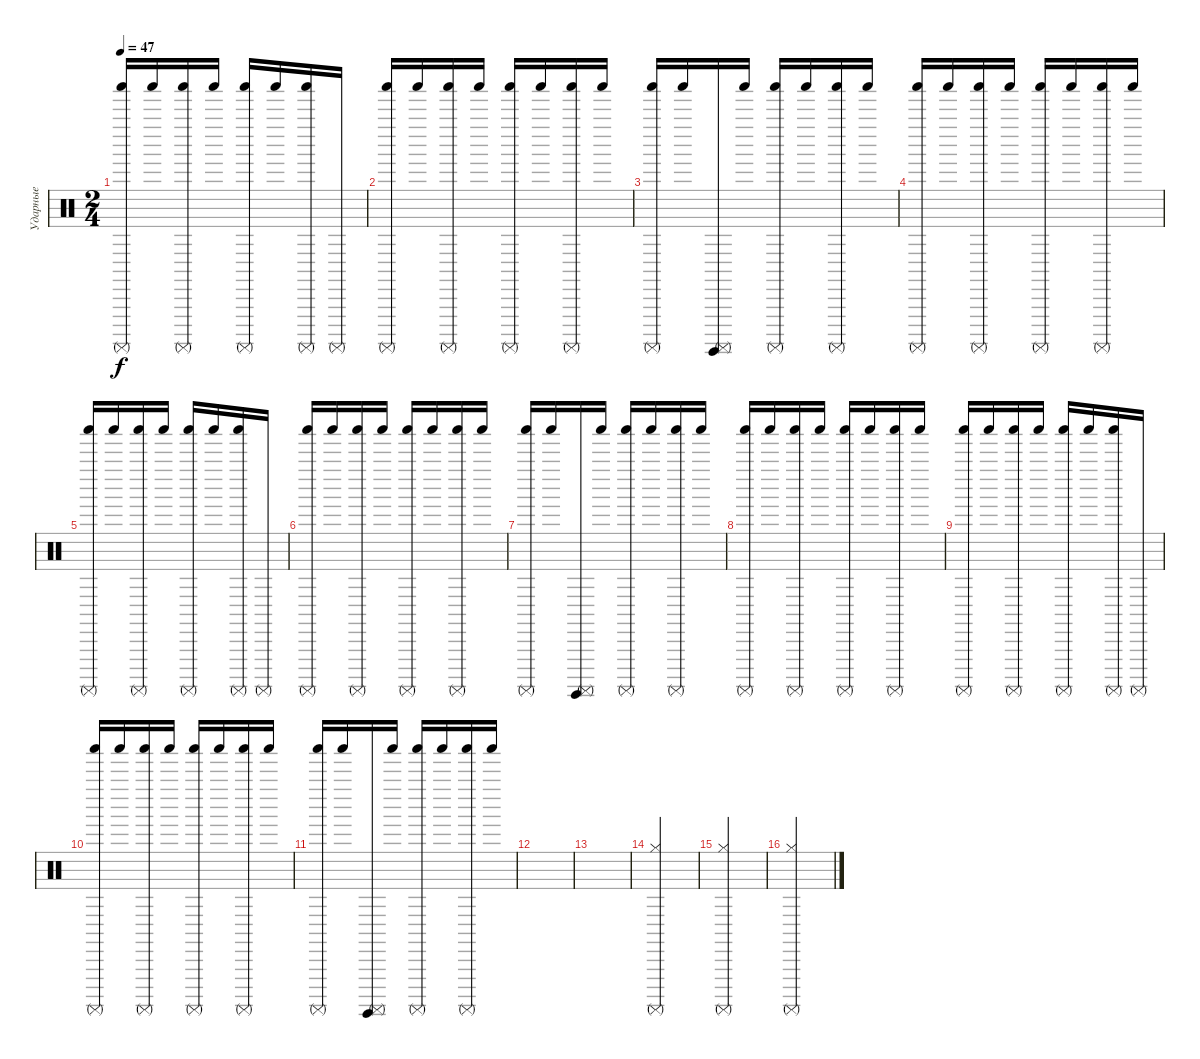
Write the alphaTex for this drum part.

\track ("Ударные" "Ударные") {instrument percussion}
\staff {score}
\articulation defaults
\ts (2 4)
\tempo 47
\clef neutral
\ks c
("Shaker (hit)" "Surdo (mute)").16{dy f} "Shaker (hit)".16 ("Shaker (hit)" "Surdo (mute)").16 "Shaker (hit)".16 ("Shaker (hit)" "Surdo (mute)").16 "Shaker (hit)".16 ("Shaker (hit)" "Surdo (mute)").16 "Surdo (mute)".16 |
("Shaker (hit)" "Surdo (mute)").16 "Shaker (hit)".16 ("Shaker (hit)" "Surdo (mute)").16 "Shaker (hit)".16 ("Shaker (hit)" "Surdo (mute)").16 "Shaker (hit)".16 ("Shaker (hit)" "Surdo (mute)").16 "Shaker (hit)".16 |
("Shaker (hit)" "Surdo (mute)").16 "Shaker (hit)".16 ("Surdo (mute)" "Surdo (hit)").16 "Shaker (hit)".16 ("Shaker (hit)" "Surdo (mute)").16 "Shaker (hit)".16 ("Shaker (hit)" "Surdo (mute)").16 "Shaker (hit)".16 |
("Shaker (hit)" "Surdo (mute)").16 "Shaker (hit)".16 ("Shaker (hit)" "Surdo (mute)").16 "Shaker (hit)".16 ("Shaker (hit)" "Surdo (mute)").16 "Shaker (hit)".16 ("Shaker (hit)" "Surdo (mute)").16 "Shaker (hit)".16 |
("Shaker (hit)" "Surdo (mute)").16 "Shaker (hit)".16 ("Shaker (hit)" "Surdo (mute)").16 "Shaker (hit)".16 ("Shaker (hit)" "Surdo (mute)").16 "Shaker (hit)".16 ("Shaker (hit)" "Surdo (mute)").16 "Surdo (mute)".16 |
("Shaker (hit)" "Surdo (mute)").16 "Shaker (hit)".16 ("Shaker (hit)" "Surdo (mute)").16 "Shaker (hit)".16 ("Shaker (hit)" "Surdo (mute)").16 "Shaker (hit)".16 ("Shaker (hit)" "Surdo (mute)").16 "Shaker (hit)".16 |
("Shaker (hit)" "Surdo (mute)").16 "Shaker (hit)".16 ("Surdo (mute)" "Surdo (hit)").16 "Shaker (hit)".16 ("Shaker (hit)" "Surdo (mute)").16 "Shaker (hit)".16 ("Shaker (hit)" "Surdo (mute)").16 "Shaker (hit)".16 |
("Shaker (hit)" "Surdo (mute)").16 "Shaker (hit)".16 ("Shaker (hit)" "Surdo (mute)").16 "Shaker (hit)".16 ("Shaker (hit)" "Surdo (mute)").16 "Shaker (hit)".16 ("Shaker (hit)" "Surdo (mute)").16 "Shaker (hit)".16 |
("Shaker (hit)" "Surdo (mute)").16 "Shaker (hit)".16 ("Shaker (hit)" "Surdo (mute)").16 "Shaker (hit)".16 ("Shaker (hit)" "Surdo (mute)").16 "Shaker (hit)".16 ("Shaker (hit)" "Surdo (mute)").16 "Surdo (mute)".16 |
("Shaker (hit)" "Surdo (mute)").16 "Shaker (hit)".16 ("Shaker (hit)" "Surdo (mute)").16 "Shaker (hit)".16 ("Shaker (hit)" "Surdo (mute)").16 "Shaker (hit)".16 ("Shaker (hit)" "Surdo (mute)").16 "Shaker (hit)".16 |
("Shaker (hit)" "Surdo (mute)").16 "Shaker (hit)".16 ("Surdo (mute)" "Surdo (hit)").16 "Shaker (hit)".16 ("Shaker (hit)" "Surdo (mute)").16 "Shaker (hit)".16 ("Shaker (hit)" "Surdo (mute)").16 "Shaker (hit)".16 |
|
|
("Surdo (mute)" "Hi-Hat (closed)").2 |
("Surdo (mute)" "Hi-Hat (closed)").2 |
("Surdo (mute)" "Hi-Hat (closed)").2
